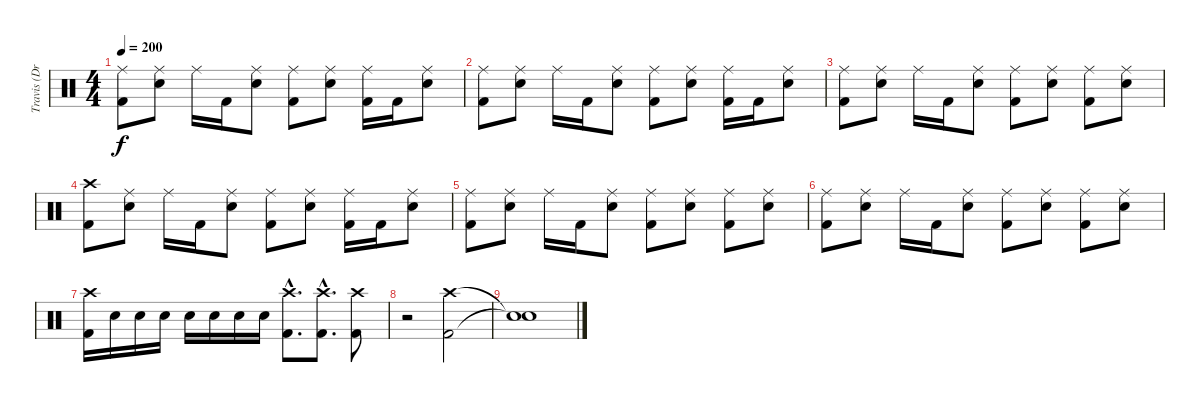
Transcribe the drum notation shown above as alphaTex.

\track ("Travis (Drums)" "Travis (Dr") {instrument percussion}
\staff {score}
\articulation defaults
\ts (4 4)
\tempo 200
\clef neutral
\ks c
("Ride (middle)" "Kick (hit) 2").8{dy f} ("Ride (middle)" "Electric Snare (hit)").8 "Ride (middle)".16 "Kick (hit) 2".16 ("Ride (middle)" "Electric Snare (hit)").8 ("Ride (middle)" "Kick (hit) 2").8 ("Ride (middle)" "Electric Snare (hit)").8 ("Ride (middle)" "Kick (hit) 2").16 "Kick (hit) 2".16 ("Ride (middle)" "Electric Snare (hit)").8 |
("Ride (middle)" "Kick (hit) 2").8 ("Ride (middle)" "Electric Snare (hit)").8 "Ride (middle)".16 "Kick (hit) 2".16 ("Ride (middle)" "Electric Snare (hit)").8 ("Ride (middle)" "Kick (hit) 2").8 ("Ride (middle)" "Electric Snare (hit)").8 ("Ride (middle)" "Kick (hit) 2").16 "Kick (hit) 2".16 ("Ride (middle)" "Electric Snare (hit)").8 |
("Ride (middle)" "Kick (hit) 2").8 ("Ride (middle)" "Electric Snare (hit)").8 "Ride (middle)".16 "Kick (hit) 2".16 ("Ride (middle)" "Electric Snare (hit)").8 ("Ride (middle)" "Kick (hit) 2").8 ("Ride (middle)" "Electric Snare (hit)").8 ("Ride (middle)" "Kick (hit) 2").8 ("Ride (middle)" "Electric Snare (hit)").8 |
("Crash high (hit)" "Kick (hit) 2").8 ("Ride (middle)" "Electric Snare (hit)").8 "Ride (middle)".16 "Kick (hit) 2".16 ("Ride (middle)" "Electric Snare (hit)").8 ("Ride (middle)" "Kick (hit) 2").8 ("Ride (middle)" "Electric Snare (hit)").8 ("Ride (middle)" "Kick (hit) 2").16 "Kick (hit) 2".16 ("Ride (middle)" "Electric Snare (hit)").8 |
("Ride (middle)" "Kick (hit) 2").8 ("Ride (middle)" "Electric Snare (hit)").8 "Ride (middle)".16 "Kick (hit) 2".16 ("Ride (middle)" "Electric Snare (hit)").8 ("Ride (middle)" "Kick (hit) 2").8 ("Ride (middle)" "Electric Snare (hit)").8 ("Ride (middle)" "Kick (hit) 2").8 ("Ride (middle)" "Electric Snare (hit)").8 |
("Ride (middle)" "Kick (hit) 2").8 ("Ride (middle)" "Electric Snare (hit)").8 "Ride (middle)".16 "Kick (hit) 2".16 ("Ride (middle)" "Electric Snare (hit)").8 ("Ride (middle)" "Kick (hit) 2").8 ("Ride (middle)" "Electric Snare (hit)").8 ("Ride (middle)" "Kick (hit) 2").8 ("Ride (middle)" "Electric Snare (hit)").8 |
("Crash high (hit)" "Kick (hit) 2").16 "Electric Snare (hit)".16 "Electric Snare (hit)".16 "Electric Snare (hit)".16 "Electric Snare (hit)".16 "Electric Snare (hit)".16 "Electric Snare (hit)".16 "Electric Snare (hit)".16 ("Crash high (hit)"{hac} "Kick (hit) 2"{hac}).8{d} ("Crash high (hit)"{hac} "Kick (hit) 2"{hac}).8{d} ("Crash high (hit)" "Kick (hit) 2").8 |
r.2 ("Crash high (hit)" "Kick (hit) 2").2 |
("Snare (hit)"{t} "Snare (hit)"{t}).1
